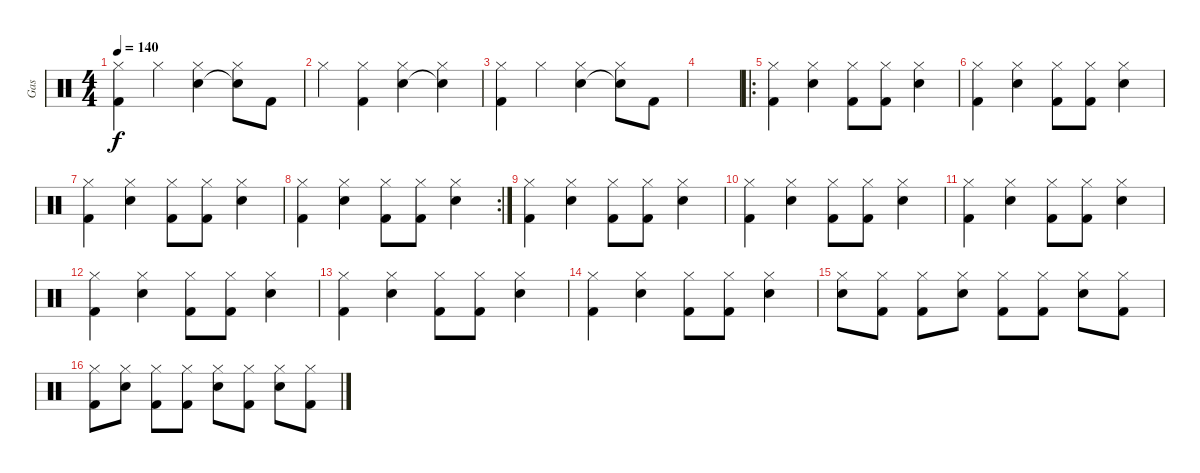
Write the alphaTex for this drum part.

\track ("Gas" "Gas") {instrument percussion}
\staff {score}
\articulation defaults
\ts (4 4)
\tempo 140
\clef neutral
\ks c
("Hi-Hat (closed)" "Kick (hit) 2").4{dy f} "Hi-Hat (closed)".4 ("Hi-Hat (closed)" "Electric Snare (hit)").4 ("Hi-Hat (closed)" "Snare (hit)"{t}).8 "Kick (hit) 2".8 |
"Hi-Hat (closed)".4 ("Hi-Hat (closed)" "Kick (hit) 2").4 ("Hi-Hat (closed)" "Electric Snare (hit)").4 ("Hi-Hat (closed)" "Snare (hit)"{t}).4 |
("Hi-Hat (closed)" "Kick (hit) 2").4 "Hi-Hat (closed)".4 ("Hi-Hat (closed)" "Electric Snare (hit)").4 ("Hi-Hat (closed)" "Snare (hit)"{t}).8 "Kick (hit) 2".8 |
|
\ro
("Hi-Hat (closed)" "Kick (hit) 2").4 ("Hi-Hat (closed)" "Electric Snare (hit)").4 ("Hi-Hat (closed)" "Kick (hit) 2").8 ("Hi-Hat (closed)" "Kick (hit) 2").8 ("Hi-Hat (closed)" "Electric Snare (hit)").4 |
("Hi-Hat (closed)" "Kick (hit) 2").4 ("Hi-Hat (closed)" "Electric Snare (hit)").4 ("Hi-Hat (closed)" "Kick (hit) 2").8 ("Hi-Hat (closed)" "Kick (hit) 2").8 ("Hi-Hat (closed)" "Electric Snare (hit)").4 |
("Hi-Hat (closed)" "Kick (hit) 2").4 ("Hi-Hat (closed)" "Electric Snare (hit)").4 ("Hi-Hat (closed)" "Kick (hit) 2").8 ("Hi-Hat (closed)" "Kick (hit) 2").8 ("Hi-Hat (closed)" "Electric Snare (hit)").4 |
\rc 2
("Hi-Hat (closed)" "Kick (hit) 2").4 ("Hi-Hat (closed)" "Electric Snare (hit)").4 ("Hi-Hat (closed)" "Kick (hit) 2").8 ("Hi-Hat (closed)" "Kick (hit) 2").8 ("Hi-Hat (closed)" "Electric Snare (hit)").4 |
("Hi-Hat (closed)" "Kick (hit) 2").4 ("Hi-Hat (closed)" "Electric Snare (hit)").4 ("Hi-Hat (closed)" "Kick (hit) 2").8 ("Hi-Hat (closed)" "Kick (hit) 2").8 ("Hi-Hat (closed)" "Electric Snare (hit)").4 |
("Hi-Hat (closed)" "Kick (hit) 2").4 ("Hi-Hat (closed)" "Electric Snare (hit)").4 ("Hi-Hat (closed)" "Kick (hit) 2").8 ("Hi-Hat (closed)" "Kick (hit) 2").8 ("Hi-Hat (closed)" "Electric Snare (hit)").4 |
("Hi-Hat (closed)" "Kick (hit) 2").4 ("Hi-Hat (closed)" "Electric Snare (hit)").4 ("Hi-Hat (closed)" "Kick (hit) 2").8 ("Hi-Hat (closed)" "Kick (hit) 2").8 ("Hi-Hat (closed)" "Electric Snare (hit)").4 |
("Hi-Hat (closed)" "Kick (hit) 2").4 ("Hi-Hat (closed)" "Electric Snare (hit)").4 ("Hi-Hat (closed)" "Kick (hit) 2").8 ("Hi-Hat (closed)" "Kick (hit) 2").8 ("Hi-Hat (closed)" "Electric Snare (hit)").4 |
("Hi-Hat (closed)" "Kick (hit) 2").4 ("Hi-Hat (closed)" "Electric Snare (hit)").4 ("Hi-Hat (closed)" "Kick (hit) 2").8 ("Hi-Hat (closed)" "Kick (hit) 2").8 ("Hi-Hat (closed)" "Electric Snare (hit)").4 |
("Hi-Hat (closed)" "Kick (hit) 2").4 ("Hi-Hat (closed)" "Electric Snare (hit)").4 ("Hi-Hat (closed)" "Kick (hit) 2").8 ("Hi-Hat (closed)" "Kick (hit) 2").8 ("Hi-Hat (closed)" "Electric Snare (hit)").4 |
("Hi-Hat (closed)" "Electric Snare (hit)").8 ("Hi-Hat (closed)" "Kick (hit) 2").8 ("Hi-Hat (closed)" "Kick (hit) 2").8 ("Hi-Hat (closed)" "Electric Snare (hit)").8 ("Hi-Hat (closed)" "Kick (hit) 2").8 ("Hi-Hat (closed)" "Kick (hit) 2").8 ("Hi-Hat (closed)" "Electric Snare (hit)").8 ("Hi-Hat (closed)" "Kick (hit) 2").8 |
("Hi-Hat (closed)" "Kick (hit) 2").8 ("Hi-Hat (closed)" "Electric Snare (hit)").8 ("Hi-Hat (closed)" "Kick (hit) 2").8 ("Hi-Hat (closed)" "Kick (hit) 2").8 ("Hi-Hat (closed)" "Electric Snare (hit)").8 ("Hi-Hat (closed)" "Kick (hit) 2").8 ("Hi-Hat (closed)" "Electric Snare (hit)").8 ("Hi-Hat (closed)" "Kick (hit) 2").8
